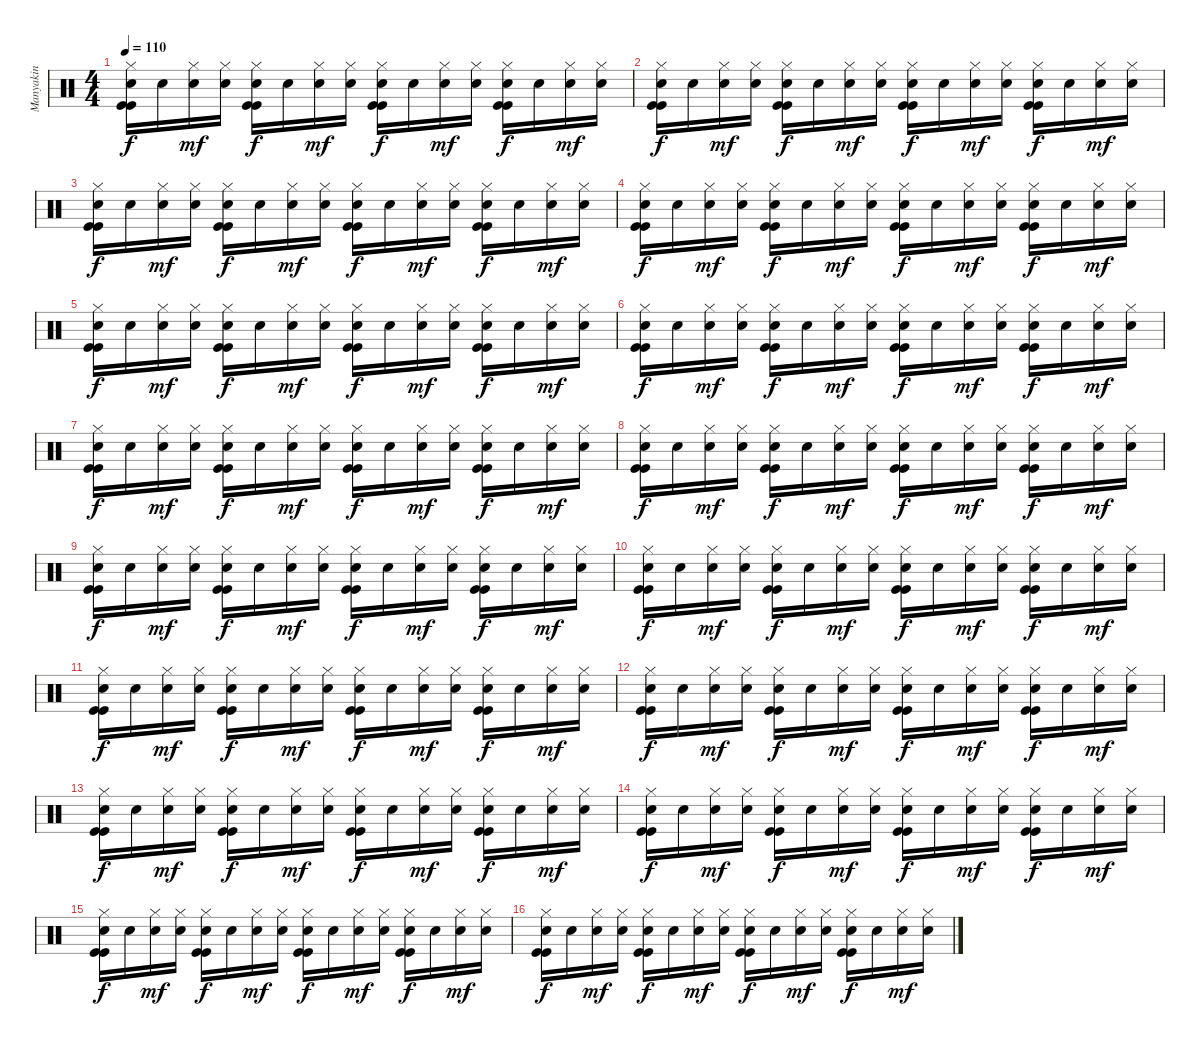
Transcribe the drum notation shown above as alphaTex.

\track ("Manyakin" "Manyakin") {instrument percussion}
\staff {score}
\articulation defaults
\ts (4 4)
\tempo 110
\clef neutral
\ks c
("Hi-Hat (closed)" "Kick (hit)" "Kick (hit)" "Snare (hit)"{x}).16{dy f} "Snare (hit)"{x}.16 ("Hi-Hat (closed)" "Snare (hit)"{x}).16{dy mf} ("Hi-Hat (closed)" "Snare (hit)"{x}).16 ("Hi-Hat (closed)" "Kick (hit)" "Kick (hit)" "Snare (hit)"{x}).16{dy f} "Snare (hit)"{x}.16 ("Hi-Hat (closed)" "Snare (hit)"{x}).16{dy mf} ("Hi-Hat (closed)" "Snare (hit)"{x}).16 ("Hi-Hat (closed)" "Kick (hit)" "Kick (hit)" "Snare (hit)"{x}).16{dy f} "Snare (hit)"{x}.16 ("Hi-Hat (closed)" "Snare (hit)"{x}).16{dy mf} ("Hi-Hat (closed)" "Snare (hit)"{x}).16 ("Hi-Hat (closed)" "Kick (hit)" "Kick (hit)" "Snare (hit)"{x}).16{dy f} "Snare (hit)"{x}.16 ("Hi-Hat (closed)" "Snare (hit)"{x}).16{dy mf} ("Hi-Hat (closed)" "Snare (hit)"{x}).16 |
("Hi-Hat (closed)" "Kick (hit)" "Kick (hit)" "Snare (hit)"{x}).16{dy f} "Snare (hit)"{x}.16 ("Hi-Hat (closed)" "Snare (hit)"{x}).16{dy mf} ("Hi-Hat (closed)" "Snare (hit)"{x}).16 ("Hi-Hat (closed)" "Kick (hit)" "Kick (hit)" "Snare (hit)"{x}).16{dy f} "Snare (hit)"{x}.16 ("Hi-Hat (closed)" "Snare (hit)"{x}).16{dy mf} ("Hi-Hat (closed)" "Snare (hit)"{x}).16 ("Hi-Hat (closed)" "Kick (hit)" "Kick (hit)" "Snare (hit)"{x}).16{dy f} "Snare (hit)"{x}.16 ("Hi-Hat (closed)" "Snare (hit)"{x}).16{dy mf} ("Hi-Hat (closed)" "Snare (hit)"{x}).16 ("Hi-Hat (closed)" "Kick (hit)" "Kick (hit)" "Snare (hit)"{x}).16{dy f} "Snare (hit)"{x}.16 ("Hi-Hat (closed)" "Snare (hit)"{x}).16{dy mf} ("Hi-Hat (closed)" "Snare (hit)"{x}).16 |
("Hi-Hat (closed)" "Kick (hit)" "Kick (hit)" "Snare (hit)"{x}).16{dy f} "Snare (hit)"{x}.16 ("Hi-Hat (closed)" "Snare (hit)"{x}).16{dy mf} ("Hi-Hat (closed)" "Snare (hit)"{x}).16 ("Hi-Hat (closed)" "Kick (hit)" "Kick (hit)" "Snare (hit)"{x}).16{dy f} "Snare (hit)"{x}.16 ("Hi-Hat (closed)" "Snare (hit)"{x}).16{dy mf} ("Hi-Hat (closed)" "Snare (hit)"{x}).16 ("Hi-Hat (closed)" "Kick (hit)" "Kick (hit)" "Snare (hit)"{x}).16{dy f} "Snare (hit)"{x}.16 ("Hi-Hat (closed)" "Snare (hit)"{x}).16{dy mf} ("Hi-Hat (closed)" "Snare (hit)"{x}).16 ("Hi-Hat (closed)" "Kick (hit)" "Kick (hit)" "Snare (hit)"{x}).16{dy f} "Snare (hit)"{x}.16 ("Hi-Hat (closed)" "Snare (hit)"{x}).16{dy mf} ("Hi-Hat (closed)" "Snare (hit)"{x}).16 |
("Hi-Hat (closed)" "Kick (hit)" "Kick (hit)" "Snare (hit)"{x}).16{dy f} "Snare (hit)"{x}.16 ("Hi-Hat (closed)" "Snare (hit)"{x}).16{dy mf} ("Hi-Hat (closed)" "Snare (hit)"{x}).16 ("Hi-Hat (closed)" "Kick (hit)" "Kick (hit)" "Snare (hit)"{x}).16{dy f} "Snare (hit)"{x}.16 ("Hi-Hat (closed)" "Snare (hit)"{x}).16{dy mf} ("Hi-Hat (closed)" "Snare (hit)"{x}).16 ("Hi-Hat (closed)" "Kick (hit)" "Kick (hit)" "Snare (hit)"{x}).16{dy f} "Snare (hit)"{x}.16 ("Hi-Hat (closed)" "Snare (hit)"{x}).16{dy mf} ("Hi-Hat (closed)" "Snare (hit)"{x}).16 ("Hi-Hat (closed)" "Kick (hit)" "Kick (hit)" "Snare (hit)"{x}).16{dy f} "Snare (hit)"{x}.16 ("Hi-Hat (closed)" "Snare (hit)"{x}).16{dy mf} ("Hi-Hat (closed)" "Snare (hit)"{x}).16 |
("Hi-Hat (closed)" "Kick (hit)" "Kick (hit)" "Snare (hit)"{x}).16{dy f} "Snare (hit)"{x}.16 ("Hi-Hat (closed)" "Snare (hit)"{x}).16{dy mf} ("Hi-Hat (closed)" "Snare (hit)"{x}).16 ("Hi-Hat (closed)" "Kick (hit)" "Kick (hit)" "Snare (hit)"{x}).16{dy f} "Snare (hit)"{x}.16 ("Hi-Hat (closed)" "Snare (hit)"{x}).16{dy mf} ("Hi-Hat (closed)" "Snare (hit)"{x}).16 ("Hi-Hat (closed)" "Kick (hit)" "Kick (hit)" "Snare (hit)"{x}).16{dy f} "Snare (hit)"{x}.16 ("Hi-Hat (closed)" "Snare (hit)"{x}).16{dy mf} ("Hi-Hat (closed)" "Snare (hit)"{x}).16 ("Hi-Hat (closed)" "Kick (hit)" "Kick (hit)" "Snare (hit)"{x}).16{dy f} "Snare (hit)"{x}.16 ("Hi-Hat (closed)" "Snare (hit)"{x}).16{dy mf} ("Hi-Hat (closed)" "Snare (hit)"{x}).16 |
("Hi-Hat (closed)" "Kick (hit)" "Kick (hit)" "Snare (hit)"{x}).16{dy f} "Snare (hit)"{x}.16 ("Hi-Hat (closed)" "Snare (hit)"{x}).16{dy mf} ("Hi-Hat (closed)" "Snare (hit)"{x}).16 ("Hi-Hat (closed)" "Kick (hit)" "Kick (hit)" "Snare (hit)"{x}).16{dy f} "Snare (hit)"{x}.16 ("Hi-Hat (closed)" "Snare (hit)"{x}).16{dy mf} ("Hi-Hat (closed)" "Snare (hit)"{x}).16 ("Hi-Hat (closed)" "Kick (hit)" "Kick (hit)" "Snare (hit)"{x}).16{dy f} "Snare (hit)"{x}.16 ("Hi-Hat (closed)" "Snare (hit)"{x}).16{dy mf} ("Hi-Hat (closed)" "Snare (hit)"{x}).16 ("Hi-Hat (closed)" "Kick (hit)" "Kick (hit)" "Snare (hit)"{x}).16{dy f} "Snare (hit)"{x}.16 ("Hi-Hat (closed)" "Snare (hit)"{x}).16{dy mf} ("Hi-Hat (closed)" "Snare (hit)"{x}).16 |
("Hi-Hat (closed)" "Kick (hit)" "Kick (hit)" "Snare (hit)"{x}).16{dy f} "Snare (hit)"{x}.16 ("Hi-Hat (closed)" "Snare (hit)"{x}).16{dy mf} ("Hi-Hat (closed)" "Snare (hit)"{x}).16 ("Hi-Hat (closed)" "Kick (hit)" "Kick (hit)" "Snare (hit)"{x}).16{dy f} "Snare (hit)"{x}.16 ("Hi-Hat (closed)" "Snare (hit)"{x}).16{dy mf} ("Hi-Hat (closed)" "Snare (hit)"{x}).16 ("Hi-Hat (closed)" "Kick (hit)" "Kick (hit)" "Snare (hit)"{x}).16{dy f} "Snare (hit)"{x}.16 ("Hi-Hat (closed)" "Snare (hit)"{x}).16{dy mf} ("Hi-Hat (closed)" "Snare (hit)"{x}).16 ("Hi-Hat (closed)" "Kick (hit)" "Kick (hit)" "Snare (hit)"{x}).16{dy f} "Snare (hit)"{x}.16 ("Hi-Hat (closed)" "Snare (hit)"{x}).16{dy mf} ("Hi-Hat (closed)" "Snare (hit)"{x}).16 |
("Hi-Hat (closed)" "Kick (hit)" "Kick (hit)" "Snare (hit)"{x}).16{dy f} "Snare (hit)"{x}.16 ("Hi-Hat (closed)" "Snare (hit)"{x}).16{dy mf} ("Hi-Hat (closed)" "Snare (hit)"{x}).16 ("Hi-Hat (closed)" "Kick (hit)" "Kick (hit)" "Snare (hit)"{x}).16{dy f} "Snare (hit)"{x}.16 ("Hi-Hat (closed)" "Snare (hit)"{x}).16{dy mf} ("Hi-Hat (closed)" "Snare (hit)"{x}).16 ("Hi-Hat (closed)" "Kick (hit)" "Kick (hit)" "Snare (hit)"{x}).16{dy f} "Snare (hit)"{x}.16 ("Hi-Hat (closed)" "Snare (hit)"{x}).16{dy mf} ("Hi-Hat (closed)" "Snare (hit)"{x}).16 ("Hi-Hat (closed)" "Kick (hit)" "Kick (hit)" "Snare (hit)"{x}).16{dy f} "Snare (hit)"{x}.16 ("Hi-Hat (closed)" "Snare (hit)"{x}).16{dy mf} ("Hi-Hat (closed)" "Snare (hit)"{x}).16 |
("Hi-Hat (closed)" "Kick (hit)" "Kick (hit)" "Snare (hit)"{x}).16{dy f} "Snare (hit)"{x}.16 ("Hi-Hat (closed)" "Snare (hit)"{x}).16{dy mf} ("Hi-Hat (closed)" "Snare (hit)"{x}).16 ("Hi-Hat (closed)" "Kick (hit)" "Kick (hit)" "Snare (hit)"{x}).16{dy f} "Snare (hit)"{x}.16 ("Hi-Hat (closed)" "Snare (hit)"{x}).16{dy mf} ("Hi-Hat (closed)" "Snare (hit)"{x}).16 ("Hi-Hat (closed)" "Kick (hit)" "Kick (hit)" "Snare (hit)"{x}).16{dy f} "Snare (hit)"{x}.16 ("Hi-Hat (closed)" "Snare (hit)"{x}).16{dy mf} ("Hi-Hat (closed)" "Snare (hit)"{x}).16 ("Hi-Hat (closed)" "Kick (hit)" "Kick (hit)" "Snare (hit)"{x}).16{dy f} "Snare (hit)"{x}.16 ("Hi-Hat (closed)" "Snare (hit)"{x}).16{dy mf} ("Hi-Hat (closed)" "Snare (hit)"{x}).16 |
("Hi-Hat (closed)" "Kick (hit)" "Kick (hit)" "Snare (hit)"{x}).16{dy f} "Snare (hit)"{x}.16 ("Hi-Hat (closed)" "Snare (hit)"{x}).16{dy mf} ("Hi-Hat (closed)" "Snare (hit)"{x}).16 ("Hi-Hat (closed)" "Kick (hit)" "Kick (hit)" "Snare (hit)"{x}).16{dy f} "Snare (hit)"{x}.16 ("Hi-Hat (closed)" "Snare (hit)"{x}).16{dy mf} ("Hi-Hat (closed)" "Snare (hit)"{x}).16 ("Hi-Hat (closed)" "Kick (hit)" "Kick (hit)" "Snare (hit)"{x}).16{dy f} "Snare (hit)"{x}.16 ("Hi-Hat (closed)" "Snare (hit)"{x}).16{dy mf} ("Hi-Hat (closed)" "Snare (hit)"{x}).16 ("Hi-Hat (closed)" "Kick (hit)" "Kick (hit)" "Snare (hit)"{x}).16{dy f} "Snare (hit)"{x}.16 ("Hi-Hat (closed)" "Snare (hit)"{x}).16{dy mf} ("Hi-Hat (closed)" "Snare (hit)"{x}).16 |
("Hi-Hat (closed)" "Kick (hit)" "Kick (hit)" "Snare (hit)"{x}).16{dy f} "Snare (hit)"{x}.16 ("Hi-Hat (closed)" "Snare (hit)"{x}).16{dy mf} ("Hi-Hat (closed)" "Snare (hit)"{x}).16 ("Hi-Hat (closed)" "Kick (hit)" "Kick (hit)" "Snare (hit)"{x}).16{dy f} "Snare (hit)"{x}.16 ("Hi-Hat (closed)" "Snare (hit)"{x}).16{dy mf} ("Hi-Hat (closed)" "Snare (hit)"{x}).16 ("Hi-Hat (closed)" "Kick (hit)" "Kick (hit)" "Snare (hit)"{x}).16{dy f} "Snare (hit)"{x}.16 ("Hi-Hat (closed)" "Snare (hit)"{x}).16{dy mf} ("Hi-Hat (closed)" "Snare (hit)"{x}).16 ("Hi-Hat (closed)" "Kick (hit)" "Kick (hit)" "Snare (hit)"{x}).16{dy f} "Snare (hit)"{x}.16 ("Hi-Hat (closed)" "Snare (hit)"{x}).16{dy mf} ("Hi-Hat (closed)" "Snare (hit)"{x}).16 |
("Hi-Hat (closed)" "Kick (hit)" "Kick (hit)" "Snare (hit)"{x}).16{dy f} "Snare (hit)"{x}.16 ("Hi-Hat (closed)" "Snare (hit)"{x}).16{dy mf} ("Hi-Hat (closed)" "Snare (hit)"{x}).16 ("Hi-Hat (closed)" "Kick (hit)" "Kick (hit)" "Snare (hit)"{x}).16{dy f} "Snare (hit)"{x}.16 ("Hi-Hat (closed)" "Snare (hit)"{x}).16{dy mf} ("Hi-Hat (closed)" "Snare (hit)"{x}).16 ("Hi-Hat (closed)" "Kick (hit)" "Kick (hit)" "Snare (hit)"{x}).16{dy f} "Snare (hit)"{x}.16 ("Hi-Hat (closed)" "Snare (hit)"{x}).16{dy mf} ("Hi-Hat (closed)" "Snare (hit)"{x}).16 ("Hi-Hat (closed)" "Kick (hit)" "Kick (hit)" "Snare (hit)"{x}).16{dy f} "Snare (hit)"{x}.16 ("Hi-Hat (closed)" "Snare (hit)"{x}).16{dy mf} ("Hi-Hat (closed)" "Snare (hit)"{x}).16 |
("Hi-Hat (closed)" "Kick (hit)" "Kick (hit)" "Snare (hit)"{x}).16{dy f} "Snare (hit)"{x}.16 ("Hi-Hat (closed)" "Snare (hit)"{x}).16{dy mf} ("Hi-Hat (closed)" "Snare (hit)"{x}).16 ("Hi-Hat (closed)" "Kick (hit)" "Kick (hit)" "Snare (hit)"{x}).16{dy f} "Snare (hit)"{x}.16 ("Hi-Hat (closed)" "Snare (hit)"{x}).16{dy mf} ("Hi-Hat (closed)" "Snare (hit)"{x}).16 ("Hi-Hat (closed)" "Kick (hit)" "Kick (hit)" "Snare (hit)"{x}).16{dy f} "Snare (hit)"{x}.16 ("Hi-Hat (closed)" "Snare (hit)"{x}).16{dy mf} ("Hi-Hat (closed)" "Snare (hit)"{x}).16 ("Hi-Hat (closed)" "Kick (hit)" "Kick (hit)" "Snare (hit)"{x}).16{dy f} "Snare (hit)"{x}.16 ("Hi-Hat (closed)" "Snare (hit)"{x}).16{dy mf} ("Hi-Hat (closed)" "Snare (hit)"{x}).16 |
("Hi-Hat (closed)" "Kick (hit)" "Kick (hit)" "Snare (hit)"{x}).16{dy f} "Snare (hit)"{x}.16 ("Hi-Hat (closed)" "Snare (hit)"{x}).16{dy mf} ("Hi-Hat (closed)" "Snare (hit)"{x}).16 ("Hi-Hat (closed)" "Kick (hit)" "Kick (hit)" "Snare (hit)"{x}).16{dy f} "Snare (hit)"{x}.16 ("Hi-Hat (closed)" "Snare (hit)"{x}).16{dy mf} ("Hi-Hat (closed)" "Snare (hit)"{x}).16 ("Hi-Hat (closed)" "Kick (hit)" "Kick (hit)" "Snare (hit)"{x}).16{dy f} "Snare (hit)"{x}.16 ("Hi-Hat (closed)" "Snare (hit)"{x}).16{dy mf} ("Hi-Hat (closed)" "Snare (hit)"{x}).16 ("Hi-Hat (closed)" "Kick (hit)" "Kick (hit)" "Snare (hit)"{x}).16{dy f} "Snare (hit)"{x}.16 ("Hi-Hat (closed)" "Snare (hit)"{x}).16{dy mf} ("Hi-Hat (closed)" "Snare (hit)"{x}).16 |
("Hi-Hat (closed)" "Kick (hit)" "Kick (hit)" "Snare (hit)"{x}).16{dy f} "Snare (hit)"{x}.16 ("Hi-Hat (closed)" "Snare (hit)"{x}).16{dy mf} ("Hi-Hat (closed)" "Snare (hit)"{x}).16 ("Hi-Hat (closed)" "Kick (hit)" "Kick (hit)" "Snare (hit)"{x}).16{dy f} "Snare (hit)"{x}.16 ("Hi-Hat (closed)" "Snare (hit)"{x}).16{dy mf} ("Hi-Hat (closed)" "Snare (hit)"{x}).16 ("Hi-Hat (closed)" "Kick (hit)" "Kick (hit)" "Snare (hit)"{x}).16{dy f} "Snare (hit)"{x}.16 ("Hi-Hat (closed)" "Snare (hit)"{x}).16{dy mf} ("Hi-Hat (closed)" "Snare (hit)"{x}).16 ("Hi-Hat (closed)" "Kick (hit)" "Kick (hit)" "Snare (hit)"{x}).16{dy f} "Snare (hit)"{x}.16 ("Hi-Hat (closed)" "Snare (hit)"{x}).16{dy mf} ("Hi-Hat (closed)" "Snare (hit)"{x}).16 |
("Hi-Hat (closed)" "Kick (hit)" "Kick (hit)" "Snare (hit)"{x}).16{dy f} "Snare (hit)"{x}.16 ("Hi-Hat (closed)" "Snare (hit)"{x}).16{dy mf} ("Hi-Hat (closed)" "Snare (hit)"{x}).16 ("Hi-Hat (closed)" "Kick (hit)" "Kick (hit)" "Snare (hit)"{x}).16{dy f} "Snare (hit)"{x}.16 ("Hi-Hat (closed)" "Snare (hit)"{x}).16{dy mf} ("Hi-Hat (closed)" "Snare (hit)"{x}).16 ("Hi-Hat (closed)" "Kick (hit)" "Kick (hit)" "Snare (hit)"{x}).16{dy f} "Snare (hit)"{x}.16 ("Hi-Hat (closed)" "Snare (hit)"{x}).16{dy mf} ("Hi-Hat (closed)" "Snare (hit)"{x}).16 ("Hi-Hat (closed)" "Kick (hit)" "Kick (hit)" "Snare (hit)"{x}).16{dy f} "Snare (hit)"{x}.16 ("Hi-Hat (closed)" "Snare (hit)"{x}).16{dy mf} ("Hi-Hat (closed)" "Snare (hit)"{x}).16
